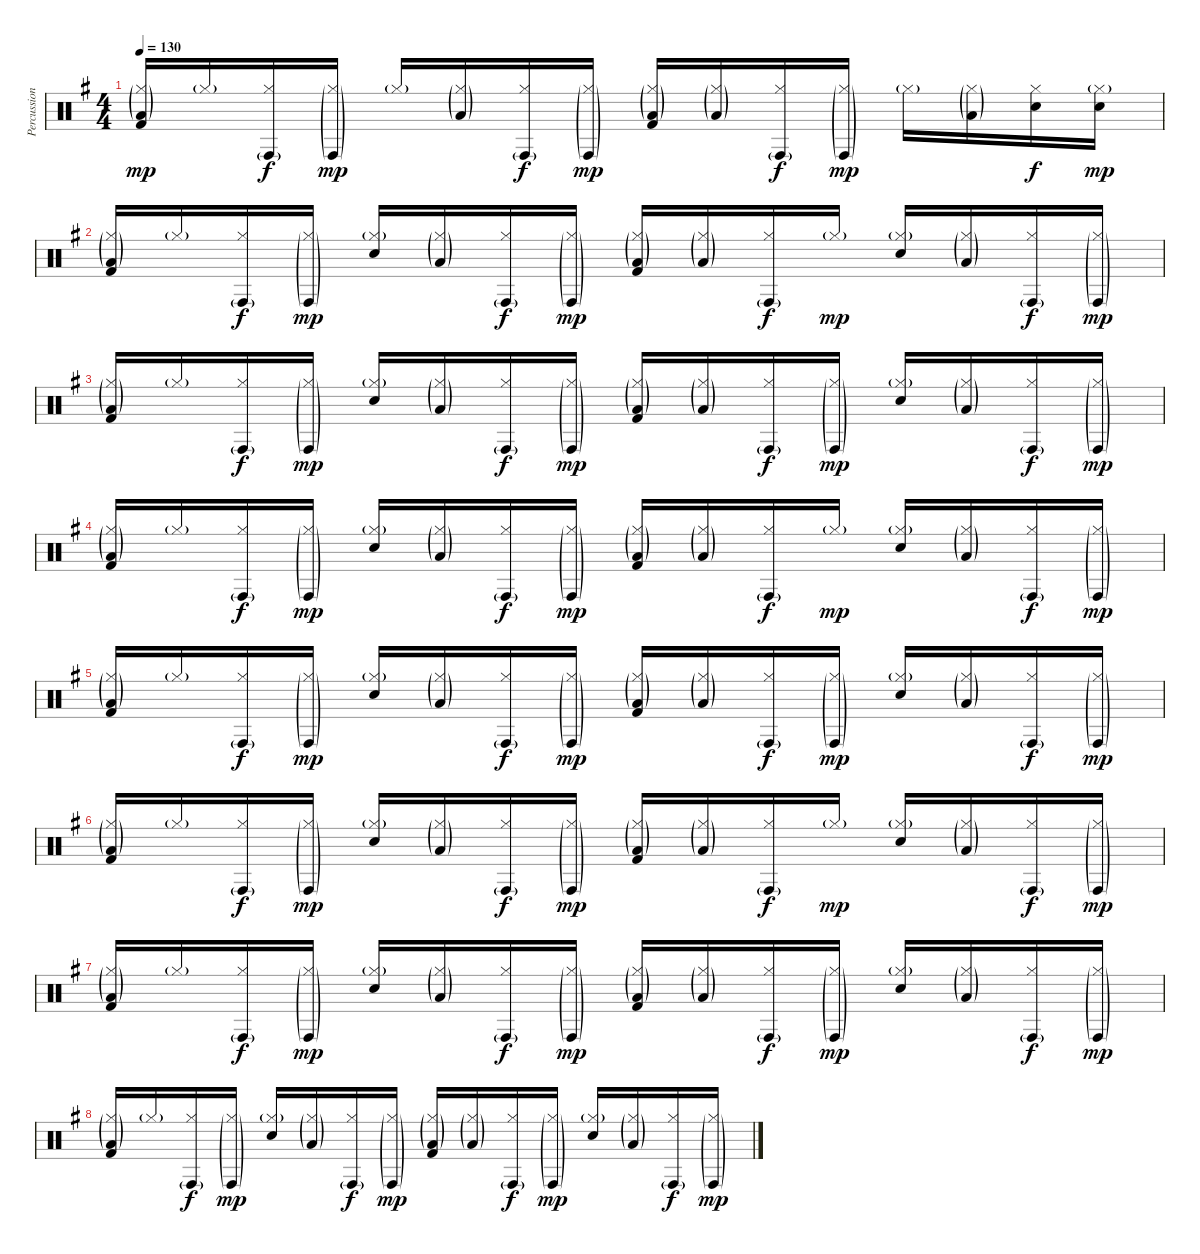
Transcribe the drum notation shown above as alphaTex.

\track ("Percussion" "Percussion") {instrument percussion}
\staff {score}
\articulation defaults
\ts (4 4)
\tempo 130
\clef neutral
\ks eminor
("Hi-Hat (closed)"{g} "Low Tom (hit)"{g} "Kick (hit) 2").16{dy mp} "Hi-Hat (closed)"{g}.16 ("Hi-Hat (closed)" "Conga high (hit)"{g}).16{dy f} ("Hi-Hat (closed)"{g} "Conga high (hit)"{g}).16{dy mp} "Hi-Hat (closed)"{g}.16 ("Hi-Hat (closed)"{g} "Low Tom (hit)"{g}).16 ("Hi-Hat (closed)" "Conga high (hit)"{g}).16{dy f} ("Hi-Hat (closed)"{g} "Conga high (hit)"{g}).16{dy mp} ("Hi-Hat (closed)"{g} "Low Tom (hit)"{g} "Kick (hit) 2").16 ("Hi-Hat (closed)"{g} "Low Tom (hit)"{g}).16 ("Hi-Hat (closed)" "Conga high (hit)"{g}).16{dy f} ("Hi-Hat (closed)"{g} "Conga high (hit)"{g}).16{dy mp} "Hi-Hat (closed)"{g}.16 ("Hi-Hat (closed)"{g} "Low Tom (hit)"{g}).16 ("Hi-Hat (closed)" "Electric Snare (hit)").16{dy f} ("Hi-Hat (closed)"{g} "Electric Snare (hit)").16{dy mp} |
("Hi-Hat (closed)"{g} "Low Tom (hit)"{g} "Kick (hit) 2").16 "Hi-Hat (closed)"{g}.16 ("Hi-Hat (closed)" "Conga high (hit)"{g}).16{dy f} ("Hi-Hat (closed)"{g} "Conga high (hit)"{g}).16{dy mp} ("Hi-Hat (closed)"{g} "Electric Snare (hit)").16 ("Hi-Hat (closed)"{g} "Low Tom (hit)"{g}).16 ("Hi-Hat (closed)" "Conga high (hit)"{g}).16{dy f} ("Hi-Hat (closed)"{g} "Conga high (hit)"{g}).16{dy mp} ("Hi-Hat (closed)"{g} "Low Tom (hit)"{g} "Kick (hit) 2").16 ("Hi-Hat (closed)"{g} "Low Tom (hit)"{g}).16 ("Hi-Hat (closed)" "Conga high (hit)"{g}).16{dy f} "Hi-Hat (closed)"{g}.16{dy mp} ("Hi-Hat (closed)"{g} "Electric Snare (hit)").16 ("Hi-Hat (closed)"{g} "Low Tom (hit)"{g}).16 ("Hi-Hat (closed)" "Conga high (hit)"{g}).16{dy f} ("Hi-Hat (closed)"{g} "Conga high (hit)"{g}).16{dy mp} |
("Hi-Hat (closed)"{g} "Low Tom (hit)"{g} "Kick (hit) 2").16 "Hi-Hat (closed)"{g}.16 ("Hi-Hat (closed)" "Conga high (hit)"{g}).16{dy f} ("Hi-Hat (closed)"{g} "Conga high (hit)"{g}).16{dy mp} ("Hi-Hat (closed)"{g} "Electric Snare (hit)").16 ("Hi-Hat (closed)"{g} "Low Tom (hit)"{g}).16 ("Hi-Hat (closed)" "Conga high (hit)"{g}).16{dy f} ("Hi-Hat (closed)"{g} "Conga high (hit)"{g}).16{dy mp} ("Hi-Hat (closed)"{g} "Low Tom (hit)"{g} "Kick (hit) 2").16 ("Hi-Hat (closed)"{g} "Low Tom (hit)"{g}).16 ("Hi-Hat (closed)" "Conga high (hit)"{g}).16{dy f} ("Hi-Hat (closed)"{g} "Conga high (hit)"{g}).16{dy mp} ("Hi-Hat (closed)"{g} "Electric Snare (hit)").16 ("Hi-Hat (closed)"{g} "Low Tom (hit)"{g}).16 ("Hi-Hat (closed)" "Conga high (hit)"{g}).16{dy f} ("Hi-Hat (closed)"{g} "Conga high (hit)"{g}).16{dy mp} |
("Hi-Hat (closed)"{g} "Low Tom (hit)"{g} "Kick (hit) 2").16 "Hi-Hat (closed)"{g}.16 ("Hi-Hat (closed)" "Conga high (hit)"{g}).16{dy f} ("Hi-Hat (closed)"{g} "Conga high (hit)"{g}).16{dy mp} ("Hi-Hat (closed)"{g} "Electric Snare (hit)").16 ("Hi-Hat (closed)"{g} "Low Tom (hit)"{g}).16 ("Hi-Hat (closed)" "Conga high (hit)"{g}).16{dy f} ("Hi-Hat (closed)"{g} "Conga high (hit)"{g}).16{dy mp} ("Hi-Hat (closed)"{g} "Low Tom (hit)"{g} "Kick (hit) 2").16 ("Hi-Hat (closed)"{g} "Low Tom (hit)"{g}).16 ("Hi-Hat (closed)" "Conga high (hit)"{g}).16{dy f} "Hi-Hat (closed)"{g}.16{dy mp} ("Hi-Hat (closed)"{g} "Electric Snare (hit)").16 ("Hi-Hat (closed)"{g} "Low Tom (hit)"{g}).16 ("Hi-Hat (closed)" "Conga high (hit)"{g}).16{dy f} ("Hi-Hat (closed)"{g} "Conga high (hit)"{g}).16{dy mp} |
("Hi-Hat (closed)"{g} "Low Tom (hit)"{g} "Kick (hit) 2").16 "Hi-Hat (closed)"{g}.16 ("Hi-Hat (closed)" "Conga high (hit)"{g}).16{dy f} ("Hi-Hat (closed)"{g} "Conga high (hit)"{g}).16{dy mp} ("Hi-Hat (closed)"{g} "Electric Snare (hit)").16 ("Hi-Hat (closed)"{g} "Low Tom (hit)"{g}).16 ("Hi-Hat (closed)" "Conga high (hit)"{g}).16{dy f} ("Hi-Hat (closed)"{g} "Conga high (hit)"{g}).16{dy mp} ("Hi-Hat (closed)"{g} "Low Tom (hit)"{g} "Kick (hit) 2").16 ("Hi-Hat (closed)"{g} "Low Tom (hit)"{g}).16 ("Hi-Hat (closed)" "Conga high (hit)"{g}).16{dy f} ("Hi-Hat (closed)"{g} "Conga high (hit)"{g}).16{dy mp} ("Hi-Hat (closed)"{g} "Electric Snare (hit)").16 ("Hi-Hat (closed)"{g} "Low Tom (hit)"{g}).16 ("Hi-Hat (closed)" "Conga high (hit)"{g}).16{dy f} ("Hi-Hat (closed)"{g} "Conga high (hit)"{g}).16{dy mp} |
("Hi-Hat (closed)"{g} "Low Tom (hit)"{g} "Kick (hit) 2").16 "Hi-Hat (closed)"{g}.16 ("Hi-Hat (closed)" "Conga high (hit)"{g}).16{dy f} ("Hi-Hat (closed)"{g} "Conga high (hit)"{g}).16{dy mp} ("Hi-Hat (closed)"{g} "Electric Snare (hit)").16 ("Hi-Hat (closed)"{g} "Low Tom (hit)"{g}).16 ("Hi-Hat (closed)" "Conga high (hit)"{g}).16{dy f} ("Hi-Hat (closed)"{g} "Conga high (hit)"{g}).16{dy mp} ("Hi-Hat (closed)"{g} "Low Tom (hit)"{g} "Kick (hit) 2").16 ("Hi-Hat (closed)"{g} "Low Tom (hit)"{g}).16 ("Hi-Hat (closed)" "Conga high (hit)"{g}).16{dy f} "Hi-Hat (closed)"{g}.16{dy mp} ("Hi-Hat (closed)"{g} "Electric Snare (hit)").16 ("Hi-Hat (closed)"{g} "Low Tom (hit)"{g}).16 ("Hi-Hat (closed)" "Conga high (hit)"{g}).16{dy f} ("Hi-Hat (closed)"{g} "Conga high (hit)"{g}).16{dy mp} |
("Hi-Hat (closed)"{g} "Low Tom (hit)"{g} "Kick (hit) 2").16 "Hi-Hat (closed)"{g}.16 ("Hi-Hat (closed)" "Conga high (hit)"{g}).16{dy f} ("Hi-Hat (closed)"{g} "Conga high (hit)"{g}).16{dy mp} ("Hi-Hat (closed)"{g} "Electric Snare (hit)").16 ("Hi-Hat (closed)"{g} "Low Tom (hit)"{g}).16 ("Hi-Hat (closed)" "Conga high (hit)"{g}).16{dy f} ("Hi-Hat (closed)"{g} "Conga high (hit)"{g}).16{dy mp} ("Hi-Hat (closed)"{g} "Low Tom (hit)"{g} "Kick (hit) 2").16 ("Hi-Hat (closed)"{g} "Low Tom (hit)"{g}).16 ("Hi-Hat (closed)" "Conga high (hit)"{g}).16{dy f} ("Hi-Hat (closed)"{g} "Conga high (hit)"{g}).16{dy mp} ("Hi-Hat (closed)"{g} "Electric Snare (hit)").16 ("Hi-Hat (closed)"{g} "Low Tom (hit)"{g}).16 ("Hi-Hat (closed)" "Conga high (hit)"{g}).16{dy f} ("Hi-Hat (closed)"{g} "Conga high (hit)"{g}).16{dy mp} |
("Hi-Hat (closed)"{g} "Low Tom (hit)"{g} "Kick (hit) 2").16 "Hi-Hat (closed)"{g}.16 ("Hi-Hat (closed)" "Conga high (hit)"{g}).16{dy f} ("Hi-Hat (closed)"{g} "Conga high (hit)"{g}).16{dy mp} ("Hi-Hat (closed)"{g} "Electric Snare (hit)").16 ("Hi-Hat (closed)"{g} "Low Tom (hit)"{g}).16 ("Hi-Hat (closed)" "Conga high (hit)"{g}).16{dy f} ("Hi-Hat (closed)"{g} "Conga high (hit)"{g}).16{dy mp} ("Hi-Hat (closed)"{g} "Low Tom (hit)"{g} "Kick (hit) 2").16 ("Hi-Hat (closed)"{g} "Low Tom (hit)"{g}).16 ("Hi-Hat (closed)" "Conga high (hit)"{g}).16{dy f} ("Hi-Hat (closed)"{g} "Conga high (hit)"{g}).16{dy mp} ("Hi-Hat (closed)"{g} "Electric Snare (hit)").16 ("Hi-Hat (closed)"{g} "Low Tom (hit)"{g}).16 ("Hi-Hat (closed)" "Conga high (hit)"{g}).16{dy f} ("Hi-Hat (closed)"{g} "Conga high (hit)"{g}).16{dy mp}
